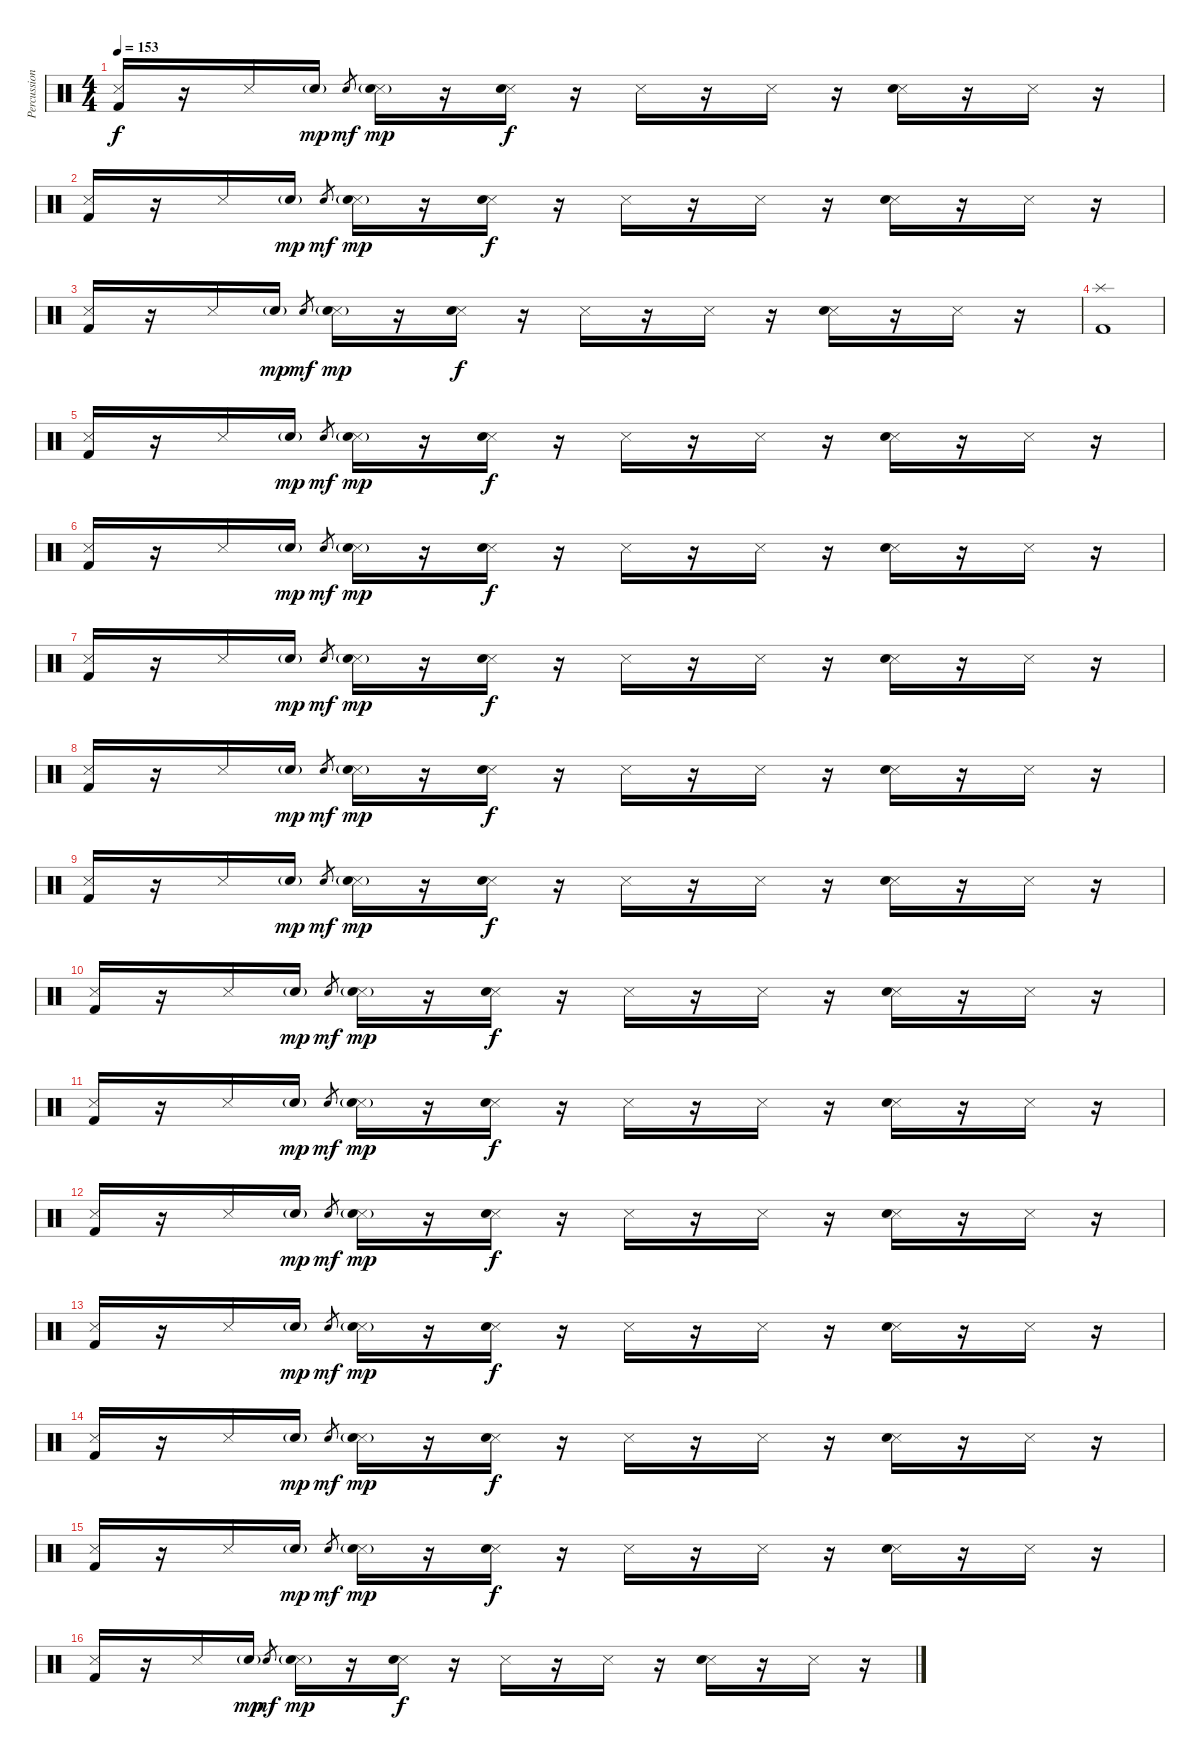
\track ("Percussion" "Percussion") {instrument percussion}
\staff {score}
\articulation defaults
\ts (4 4)
\tempo 153
\clef neutral
\ks c
("Snare (side stick) 3" "Kick (hit) 2").16{dy f} r.16 "Snare (side stick) 3".16 "Electric Snare (hit)"{g}.16{dy mp} "Electric Snare (hit)".8{gr dy mf} ("Snare (side stick) 3" "Electric Snare (hit)"{g}).16{dy mp} r.16 ("Snare (side stick) 3" "Electric Snare (hit)").16{dy f} r.16 "Snare (side stick) 3".16 r.16 "Snare (side stick) 3".16 r.16 ("Snare (side stick) 3" "Electric Snare (hit)").16 r.16 "Snare (side stick) 3".16 r.16 |
("Snare (side stick) 3" "Kick (hit) 2").16 r.16 "Snare (side stick) 3".16 "Electric Snare (hit)"{g}.16{dy mp} "Electric Snare (hit)".8{gr dy mf} ("Snare (side stick) 3" "Electric Snare (hit)"{g}).16{dy mp} r.16 ("Snare (side stick) 3" "Electric Snare (hit)").16{dy f} r.16 "Snare (side stick) 3".16 r.16 "Snare (side stick) 3".16 r.16 ("Snare (side stick) 3" "Electric Snare (hit)").16 r.16 "Snare (side stick) 3".16 r.16 |
("Snare (side stick) 3" "Kick (hit) 2").16 r.16 "Snare (side stick) 3".16 "Electric Snare (hit)"{g}.16{dy mp} "Electric Snare (hit)".8{gr dy mf} ("Snare (side stick) 3" "Electric Snare (hit)"{g}).16{dy mp} r.16 ("Snare (side stick) 3" "Electric Snare (hit)").16{dy f} r.16 "Snare (side stick) 3".16 r.16 "Snare (side stick) 3".16 r.16 ("Snare (side stick) 3" "Electric Snare (hit)").16 r.16 "Snare (side stick) 3".16 r.16 |
("Splash (hit)" "Kick (hit) 2").1 |
\section ("" "")
("Snare (side stick) 3" "Kick (hit) 2").16 r.16 "Snare (side stick) 3".16 "Electric Snare (hit)"{g}.16{dy mp} "Electric Snare (hit)".8{gr dy mf} ("Snare (side stick) 3" "Electric Snare (hit)"{g}).16{dy mp} r.16 ("Snare (side stick) 3" "Electric Snare (hit)").16{dy f} r.16 "Snare (side stick) 3".16 r.16 "Snare (side stick) 3".16 r.16 ("Snare (side stick) 3" "Electric Snare (hit)").16 r.16 "Snare (side stick) 3".16 r.16 |
("Snare (side stick) 3" "Kick (hit) 2").16 r.16 "Snare (side stick) 3".16 "Electric Snare (hit)"{g}.16{dy mp} "Electric Snare (hit)".8{gr dy mf} ("Snare (side stick) 3" "Electric Snare (hit)"{g}).16{dy mp} r.16 ("Snare (side stick) 3" "Electric Snare (hit)").16{dy f} r.16 "Snare (side stick) 3".16 r.16 "Snare (side stick) 3".16 r.16 ("Snare (side stick) 3" "Electric Snare (hit)").16 r.16 "Snare (side stick) 3".16 r.16 |
("Snare (side stick) 3" "Kick (hit) 2").16 r.16 "Snare (side stick) 3".16 "Electric Snare (hit)"{g}.16{dy mp} "Electric Snare (hit)".8{gr dy mf} ("Snare (side stick) 3" "Electric Snare (hit)"{g}).16{dy mp} r.16 ("Snare (side stick) 3" "Electric Snare (hit)").16{dy f} r.16 "Snare (side stick) 3".16 r.16 "Snare (side stick) 3".16 r.16 ("Snare (side stick) 3" "Electric Snare (hit)").16 r.16 "Snare (side stick) 3".16 r.16 |
("Snare (side stick) 3" "Kick (hit) 2").16 r.16 "Snare (side stick) 3".16 "Electric Snare (hit)"{g}.16{dy mp} "Electric Snare (hit)".8{gr dy mf} ("Snare (side stick) 3" "Electric Snare (hit)"{g}).16{dy mp} r.16 ("Snare (side stick) 3" "Electric Snare (hit)").16{dy f} r.16 "Snare (side stick) 3".16 r.16 "Snare (side stick) 3".16 r.16 ("Snare (side stick) 3" "Electric Snare (hit)").16 r.16 "Snare (side stick) 3".16 r.16 |
("Snare (side stick) 3" "Kick (hit) 2").16 r.16 "Snare (side stick) 3".16 "Electric Snare (hit)"{g}.16{dy mp} "Electric Snare (hit)".8{gr dy mf} ("Snare (side stick) 3" "Electric Snare (hit)"{g}).16{dy mp} r.16 ("Snare (side stick) 3" "Electric Snare (hit)").16{dy f} r.16 "Snare (side stick) 3".16 r.16 "Snare (side stick) 3".16 r.16 ("Snare (side stick) 3" "Electric Snare (hit)").16 r.16 "Snare (side stick) 3".16 r.16 |
("Snare (side stick) 3" "Kick (hit) 2").16 r.16 "Snare (side stick) 3".16 "Electric Snare (hit)"{g}.16{dy mp} "Electric Snare (hit)".8{gr dy mf} ("Snare (side stick) 3" "Electric Snare (hit)"{g}).16{dy mp} r.16 ("Snare (side stick) 3" "Electric Snare (hit)").16{dy f} r.16 "Snare (side stick) 3".16 r.16 "Snare (side stick) 3".16 r.16 ("Snare (side stick) 3" "Electric Snare (hit)").16 r.16 "Snare (side stick) 3".16 r.16 |
("Snare (side stick) 3" "Kick (hit) 2").16 r.16 "Snare (side stick) 3".16 "Electric Snare (hit)"{g}.16{dy mp} "Electric Snare (hit)".8{gr dy mf} ("Snare (side stick) 3" "Electric Snare (hit)"{g}).16{dy mp} r.16 ("Snare (side stick) 3" "Electric Snare (hit)").16{dy f} r.16 "Snare (side stick) 3".16 r.16 "Snare (side stick) 3".16 r.16 ("Snare (side stick) 3" "Electric Snare (hit)").16 r.16 "Snare (side stick) 3".16 r.16 |
("Snare (side stick) 3" "Kick (hit) 2").16 r.16 "Snare (side stick) 3".16 "Electric Snare (hit)"{g}.16{dy mp} "Electric Snare (hit)".8{gr dy mf} ("Snare (side stick) 3" "Electric Snare (hit)"{g}).16{dy mp} r.16 ("Snare (side stick) 3" "Electric Snare (hit)").16{dy f} r.16 "Snare (side stick) 3".16 r.16 "Snare (side stick) 3".16 r.16 ("Snare (side stick) 3" "Electric Snare (hit)").16 r.16 "Snare (side stick) 3".16 r.16 |
\section ("" "")
("Snare (side stick) 3" "Kick (hit) 2").16 r.16 "Snare (side stick) 3".16 "Electric Snare (hit)"{g}.16{dy mp} "Electric Snare (hit)".8{gr dy mf} ("Snare (side stick) 3" "Electric Snare (hit)"{g}).16{dy mp} r.16 ("Snare (side stick) 3" "Electric Snare (hit)").16{dy f} r.16 "Snare (side stick) 3".16 r.16 "Snare (side stick) 3".16 r.16 ("Snare (side stick) 3" "Electric Snare (hit)").16 r.16 "Snare (side stick) 3".16 r.16 |
("Snare (side stick) 3" "Kick (hit) 2").16 r.16 "Snare (side stick) 3".16 "Electric Snare (hit)"{g}.16{dy mp} "Electric Snare (hit)".8{gr dy mf} ("Snare (side stick) 3" "Electric Snare (hit)"{g}).16{dy mp} r.16 ("Snare (side stick) 3" "Electric Snare (hit)").16{dy f} r.16 "Snare (side stick) 3".16 r.16 "Snare (side stick) 3".16 r.16 ("Snare (side stick) 3" "Electric Snare (hit)").16 r.16 "Snare (side stick) 3".16 r.16 |
("Snare (side stick) 3" "Kick (hit) 2").16 r.16 "Snare (side stick) 3".16 "Electric Snare (hit)"{g}.16{dy mp} "Electric Snare (hit)".8{gr dy mf} ("Snare (side stick) 3" "Electric Snare (hit)"{g}).16{dy mp} r.16 ("Snare (side stick) 3" "Electric Snare (hit)").16{dy f} r.16 "Snare (side stick) 3".16 r.16 "Snare (side stick) 3".16 r.16 ("Snare (side stick) 3" "Electric Snare (hit)").16 r.16 "Snare (side stick) 3".16 r.16 |
("Snare (side stick) 3" "Kick (hit) 2").16 r.16 "Snare (side stick) 3".16 "Electric Snare (hit)"{g}.16{dy mp} "Electric Snare (hit)".8{gr dy mf} ("Snare (side stick) 3" "Electric Snare (hit)"{g}).16{dy mp} r.16 ("Snare (side stick) 3" "Electric Snare (hit)").16{dy f} r.16 "Snare (side stick) 3".16 r.16 "Snare (side stick) 3".16 r.16 ("Snare (side stick) 3" "Electric Snare (hit)").16 r.16 "Snare (side stick) 3".16 r.16
